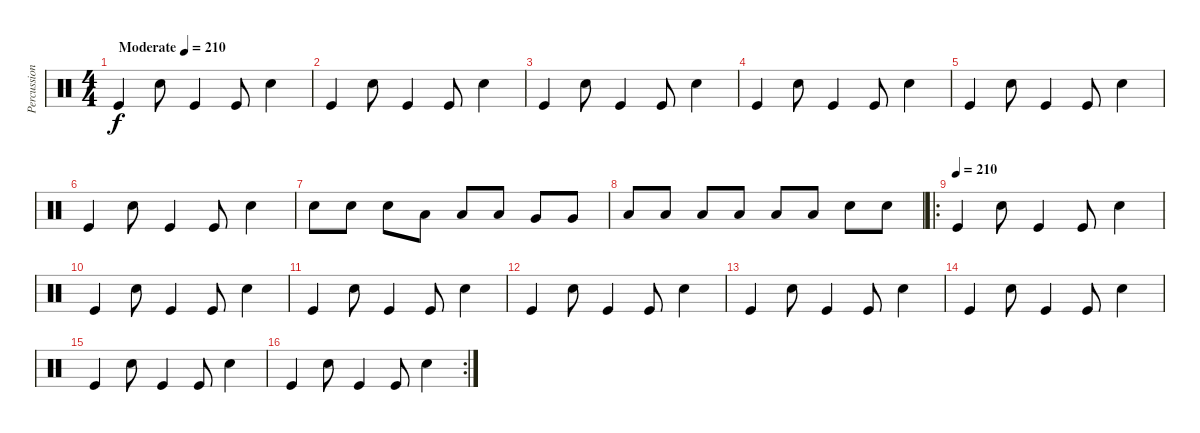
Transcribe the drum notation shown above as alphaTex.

\track ("Percussion" "Percussion") {instrument percussion}
\staff {score}
\articulation defaults
\ts (4 4)
\tempo (210 "Moderate")
\clef neutral
\ks c "Kick (hit)".4{dy f} "Snare (hit) 2".8 "Kick (hit)".4 "Kick (hit)".8 "Snare (hit) 2".4
|
"Kick (hit)".4 "Snare (hit) 2".8 "Kick (hit)".4 "Kick (hit)".8 "Snare (hit) 2".4 |
"Kick (hit)".4 "Snare (hit) 2".8 "Kick (hit)".4 "Kick (hit)".8 "Snare (hit) 2".4 |
"Kick (hit)".4 "Snare (hit) 2".8 "Kick (hit)".4 "Kick (hit)".8 "Snare (hit) 2".4 |
"Kick (hit)".4 "Snare (hit) 2".8 "Kick (hit)".4 "Kick (hit)".8 "Snare (hit) 2".4 |
"Kick (hit)".4 "Snare (hit) 2".8 "Kick (hit)".4 "Kick (hit)".8 "Snare (hit) 2".4 |
"Snare (hit) 2".8 "Snare (hit) 2".8 "Snare (hit) 2".8 "Low Tom (hit)".8 "Low Tom (hit)".8 "Low Tom (hit)".8 "Very Low Tom (hit)".8 "Very Low Tom (hit)".8 |
"Low Floor Tom (hit)".8 "Low Floor Tom (hit)".8 "Low Floor Tom (hit)".8 "Low Floor Tom (hit)".8 "Low Floor Tom (hit)".8 "Low Floor Tom (hit)".8 "Snare (hit) 2".8 "Snare (hit) 2".8 |
\ro
\tempo (210)
"Kick (hit)".4 "Snare (hit) 2".8 "Kick (hit)".4 "Kick (hit)".8 "Snare (hit) 2".4 |
"Kick (hit)".4 "Snare (hit) 2".8 "Kick (hit)".4 "Kick (hit)".8 "Snare (hit) 2".4 |
"Kick (hit)".4 "Snare (hit) 2".8 "Kick (hit)".4 "Kick (hit)".8 "Snare (hit) 2".4 |
"Kick (hit)".4 "Snare (hit) 2".8 "Kick (hit)".4 "Kick (hit)".8 "Snare (hit) 2".4 |
"Kick (hit)".4 "Snare (hit) 2".8 "Kick (hit)".4 "Kick (hit)".8 "Snare (hit) 2".4 |
"Kick (hit)".4 "Snare (hit) 2".8 "Kick (hit)".4 "Kick (hit)".8 "Snare (hit) 2".4 |
"Kick (hit)".4 "Snare (hit) 2".8 "Kick (hit)".4 "Kick (hit)".8 "Snare (hit) 2".4 |
\rc 2 "Kick (hit)".4 "Snare (hit) 2".8 "Kick (hit)".4 "Kick (hit)".8 "Snare (hit) 2".4
